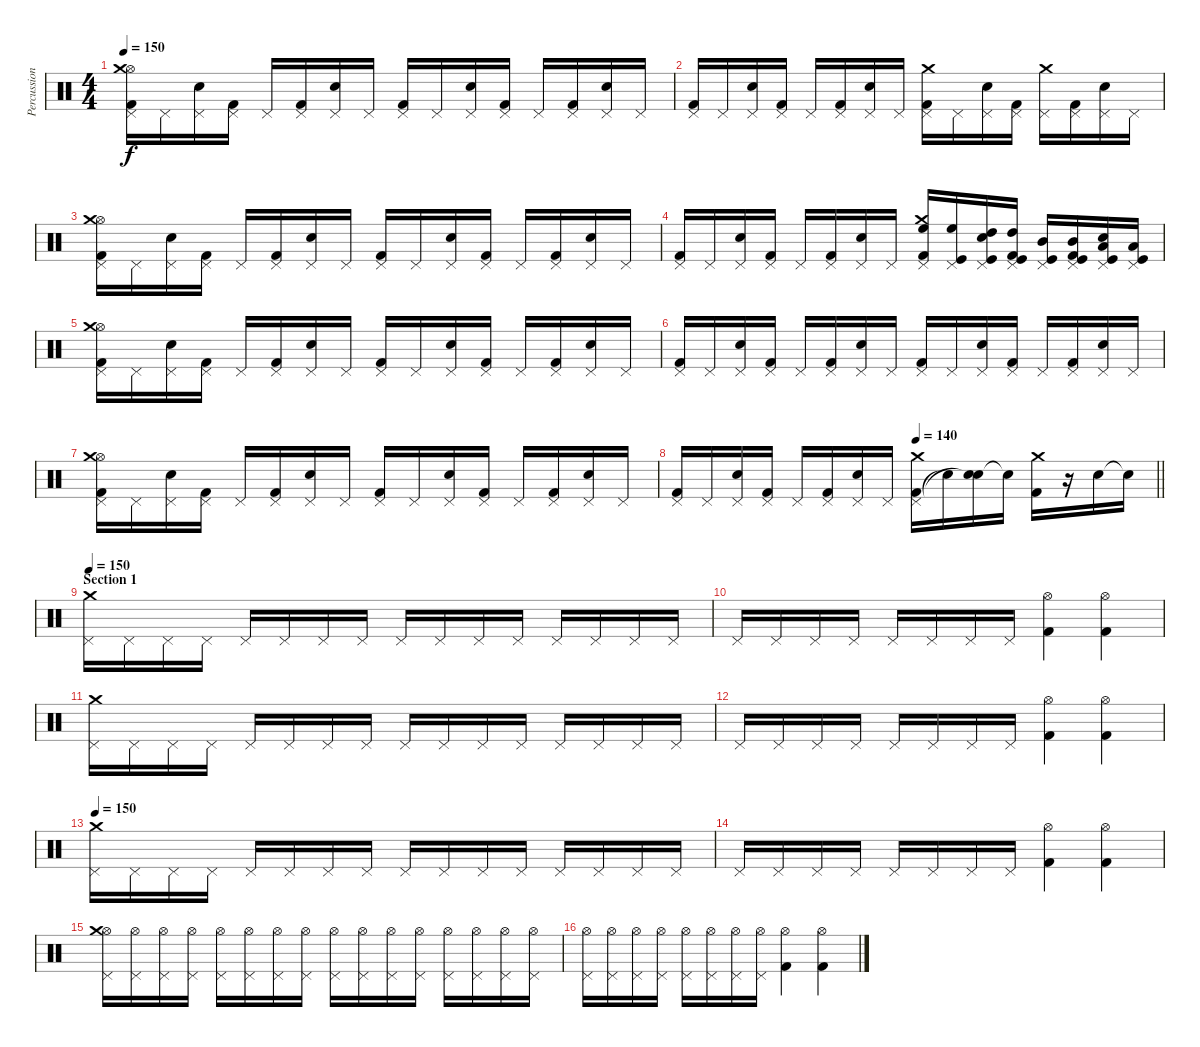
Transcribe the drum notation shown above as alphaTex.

\track ("Percussion" "Percussion") {instrument percussion}
\staff {score}
\articulation defaults
\ts (4 4)
\tempo 150
\clef neutral
\ks c
("Pedal Hi-Hat (hit)" "Kick (hit) 2" "Hi-Hat (open)" "Crash medium (hit)").16{dy f} "Pedal Hi-Hat (hit)".16 ("Pedal Hi-Hat (hit)" "Snare (hit) 2").16 ("Pedal Hi-Hat (hit)" "Kick (hit) 2").16 "Pedal Hi-Hat (hit)".16 ("Pedal Hi-Hat (hit)" "Kick (hit) 2").16 ("Pedal Hi-Hat (hit)" "Snare (hit) 2").16 "Pedal Hi-Hat (hit)".16 ("Pedal Hi-Hat (hit)" "Kick (hit) 2").16 "Pedal Hi-Hat (hit)".16 ("Pedal Hi-Hat (hit)" "Snare (hit) 2").16 ("Pedal Hi-Hat (hit)" "Kick (hit) 2").16 "Pedal Hi-Hat (hit)".16 ("Pedal Hi-Hat (hit)" "Kick (hit) 2").16 ("Pedal Hi-Hat (hit)" "Snare (hit) 2").16 "Pedal Hi-Hat (hit)".16 |
("Pedal Hi-Hat (hit)" "Kick (hit) 2").16 "Pedal Hi-Hat (hit)".16 ("Pedal Hi-Hat (hit)" "Snare (hit) 2").16 ("Pedal Hi-Hat (hit)" "Kick (hit) 2").16 "Pedal Hi-Hat (hit)".16 ("Pedal Hi-Hat (hit)" "Kick (hit) 2").16 ("Pedal Hi-Hat (hit)" "Snare (hit) 2").16 "Pedal Hi-Hat (hit)".16 ("Pedal Hi-Hat (hit)" "Kick (hit) 2" "Crash medium (hit)").16 "Pedal Hi-Hat (hit)".16 ("Pedal Hi-Hat (hit)" "Snare (hit) 2").16 ("Pedal Hi-Hat (hit)" "Kick (hit) 2").16 ("Pedal Hi-Hat (hit)" "Crash medium (hit)").16 ("Pedal Hi-Hat (hit)" "Kick (hit) 2").16 ("Pedal Hi-Hat (hit)" "Snare (hit) 2").16 "Pedal Hi-Hat (hit)".16 |
("Pedal Hi-Hat (hit)" "Kick (hit) 2" "Hi-Hat (open)" "Crash medium (hit)").16 "Pedal Hi-Hat (hit)".16 ("Pedal Hi-Hat (hit)" "Snare (hit) 2").16 ("Pedal Hi-Hat (hit)" "Kick (hit) 2").16 "Pedal Hi-Hat (hit)".16 ("Pedal Hi-Hat (hit)" "Kick (hit) 2").16 ("Pedal Hi-Hat (hit)" "Snare (hit) 2").16 "Pedal Hi-Hat (hit)".16 ("Pedal Hi-Hat (hit)" "Kick (hit) 2").16 "Pedal Hi-Hat (hit)".16 ("Pedal Hi-Hat (hit)" "Snare (hit) 2").16 ("Pedal Hi-Hat (hit)" "Kick (hit) 2").16 "Pedal Hi-Hat (hit)".16 ("Pedal Hi-Hat (hit)" "Kick (hit) 2").16 ("Pedal Hi-Hat (hit)" "Snare (hit) 2").16 "Pedal Hi-Hat (hit)".16 |
("Pedal Hi-Hat (hit)" "Kick (hit) 2").16 "Pedal Hi-Hat (hit)".16 ("Pedal Hi-Hat (hit)" "Snare (hit) 2").16 ("Pedal Hi-Hat (hit)" "Kick (hit) 2").16 "Pedal Hi-Hat (hit)".16 ("Pedal Hi-Hat (hit)" "Kick (hit) 2").16 ("Pedal Hi-Hat (hit)" "Snare (hit) 2").16 "Pedal Hi-Hat (hit)".16 ("Pedal Hi-Hat (hit)" "Kick (hit) 2" "High Floor Tom (hit)" "Crash medium (hit)").16 ("Pedal Hi-Hat (hit)" "Kick (hit)" "High Floor Tom (hit)").16 ("Pedal Hi-Hat (hit)" "Snare (hit) 2" "Kick (hit)" "High Tom (hit)").16 ("Pedal Hi-Hat (hit)" "Kick (hit) 2" "Kick (hit)" "High Tom (hit)").16 ("Pedal Hi-Hat (hit)" "Kick (hit)" "Mid Tom (hit)").16 ("Pedal Hi-Hat (hit)" "Kick (hit) 2" "Kick (hit)" "Mid Tom (hit)").16 ("Pedal Hi-Hat (hit)" "Snare (hit) 2" "Kick (hit)" "Low Tom (hit)").16 ("Pedal Hi-Hat (hit)" "Kick (hit)" "Low Tom (hit)").16 |
("Pedal Hi-Hat (hit)" "Kick (hit) 2" "Hi-Hat (open)" "Crash medium (hit)").16 "Pedal Hi-Hat (hit)".16 ("Pedal Hi-Hat (hit)" "Snare (hit) 2").16 ("Pedal Hi-Hat (hit)" "Kick (hit) 2").16 "Pedal Hi-Hat (hit)".16 ("Pedal Hi-Hat (hit)" "Kick (hit) 2").16 ("Pedal Hi-Hat (hit)" "Snare (hit) 2").16 "Pedal Hi-Hat (hit)".16 ("Pedal Hi-Hat (hit)" "Kick (hit) 2").16 "Pedal Hi-Hat (hit)".16 ("Pedal Hi-Hat (hit)" "Snare (hit) 2").16 ("Pedal Hi-Hat (hit)" "Kick (hit) 2").16 "Pedal Hi-Hat (hit)".16 ("Pedal Hi-Hat (hit)" "Kick (hit) 2").16 ("Pedal Hi-Hat (hit)" "Snare (hit) 2").16 "Pedal Hi-Hat (hit)".16 |
("Pedal Hi-Hat (hit)" "Kick (hit) 2").16 "Pedal Hi-Hat (hit)".16 ("Pedal Hi-Hat (hit)" "Snare (hit) 2").16 ("Pedal Hi-Hat (hit)" "Kick (hit) 2").16 "Pedal Hi-Hat (hit)".16 ("Pedal Hi-Hat (hit)" "Kick (hit) 2").16 ("Pedal Hi-Hat (hit)" "Snare (hit) 2").16 "Pedal Hi-Hat (hit)".16 ("Pedal Hi-Hat (hit)" "Kick (hit) 2").16 "Pedal Hi-Hat (hit)".16 ("Pedal Hi-Hat (hit)" "Snare (hit) 2").16 ("Pedal Hi-Hat (hit)" "Kick (hit) 2").16 "Pedal Hi-Hat (hit)".16 ("Pedal Hi-Hat (hit)" "Kick (hit) 2").16 ("Pedal Hi-Hat (hit)" "Snare (hit) 2").16 "Pedal Hi-Hat (hit)".16 |
("Pedal Hi-Hat (hit)" "Kick (hit) 2" "Hi-Hat (open)" "Crash medium (hit)").16 "Pedal Hi-Hat (hit)".16 ("Pedal Hi-Hat (hit)" "Snare (hit) 2").16 ("Pedal Hi-Hat (hit)" "Kick (hit) 2").16 "Pedal Hi-Hat (hit)".16 ("Pedal Hi-Hat (hit)" "Kick (hit) 2").16 ("Pedal Hi-Hat (hit)" "Snare (hit) 2").16 "Pedal Hi-Hat (hit)".16 ("Pedal Hi-Hat (hit)" "Kick (hit) 2").16 "Pedal Hi-Hat (hit)".16 ("Pedal Hi-Hat (hit)" "Snare (hit) 2").16 ("Pedal Hi-Hat (hit)" "Kick (hit) 2").16 "Pedal Hi-Hat (hit)".16 ("Pedal Hi-Hat (hit)" "Kick (hit) 2").16 ("Pedal Hi-Hat (hit)" "Snare (hit) 2").16 "Pedal Hi-Hat (hit)".16 |
\tempo (140 0.5)
\barLineRight lightlight
("Pedal Hi-Hat (hit)" "Kick (hit) 2").16 "Pedal Hi-Hat (hit)".16 ("Pedal Hi-Hat (hit)" "Snare (hit) 2").16 ("Pedal Hi-Hat (hit)" "Kick (hit) 2").16 "Pedal Hi-Hat (hit)".16 ("Pedal Hi-Hat (hit)" "Kick (hit) 2").16 ("Pedal Hi-Hat (hit)" "Snare (hit) 2").16 "Pedal Hi-Hat (hit)".16 ("Pedal Hi-Hat (hit)" "Kick (hit) 2" "Crash medium (hit)").16 "Snare (hit)"{t}.16 ("Snare (hit) 2" "Snare (hit)"{t}).16 "Snare (hit)"{t}.16 ("Kick (hit) 2" "Crash medium (hit)").16 r.16 "Snare (hit) 2".16 "Snare (hit)"{t}.16 |
\section ("" "Section 1")
\tempo 150
("Pedal Hi-Hat (hit)" "Crash medium (hit)").16 "Pedal Hi-Hat (hit)".16 "Pedal Hi-Hat (hit)".16 "Pedal Hi-Hat (hit)".16 "Pedal Hi-Hat (hit)".16 "Pedal Hi-Hat (hit)".16 "Pedal Hi-Hat (hit)".16 "Pedal Hi-Hat (hit)".16 "Pedal Hi-Hat (hit)".16 "Pedal Hi-Hat (hit)".16 "Pedal Hi-Hat (hit)".16 "Pedal Hi-Hat (hit)".16 "Pedal Hi-Hat (hit)".16 "Pedal Hi-Hat (hit)".16 "Pedal Hi-Hat (hit)".16 "Pedal Hi-Hat (hit)".16 |
"Pedal Hi-Hat (hit)".16 "Pedal Hi-Hat (hit)".16 "Pedal Hi-Hat (hit)".16 "Pedal Hi-Hat (hit)".16 "Pedal Hi-Hat (hit)".16 "Pedal Hi-Hat (hit)".16 "Pedal Hi-Hat (hit)".16 "Pedal Hi-Hat (hit)".16 ("Kick (hit) 2" "Hi-Hat (open)").4 ("Kick (hit) 2" "Hi-Hat (open)").4 |
("Pedal Hi-Hat (hit)" "Crash medium (hit)").16 "Pedal Hi-Hat (hit)".16 "Pedal Hi-Hat (hit)".16 "Pedal Hi-Hat (hit)".16 "Pedal Hi-Hat (hit)".16 "Pedal Hi-Hat (hit)".16 "Pedal Hi-Hat (hit)".16 "Pedal Hi-Hat (hit)".16 "Pedal Hi-Hat (hit)".16 "Pedal Hi-Hat (hit)".16 "Pedal Hi-Hat (hit)".16 "Pedal Hi-Hat (hit)".16 "Pedal Hi-Hat (hit)".16 "Pedal Hi-Hat (hit)".16 "Pedal Hi-Hat (hit)".16 "Pedal Hi-Hat (hit)".16 |
"Pedal Hi-Hat (hit)".16 "Pedal Hi-Hat (hit)".16 "Pedal Hi-Hat (hit)".16 "Pedal Hi-Hat (hit)".16 "Pedal Hi-Hat (hit)".16 "Pedal Hi-Hat (hit)".16 "Pedal Hi-Hat (hit)".16 "Pedal Hi-Hat (hit)".16 ("Kick (hit) 2" "Hi-Hat (open)").4 ("Kick (hit) 2" "Hi-Hat (open)").4 |
\tempo 150
("Pedal Hi-Hat (hit)" "Crash medium (hit)").16 "Pedal Hi-Hat (hit)".16 "Pedal Hi-Hat (hit)".16 "Pedal Hi-Hat (hit)".16 "Pedal Hi-Hat (hit)".16 "Pedal Hi-Hat (hit)".16 "Pedal Hi-Hat (hit)".16 "Pedal Hi-Hat (hit)".16 "Pedal Hi-Hat (hit)".16 "Pedal Hi-Hat (hit)".16 "Pedal Hi-Hat (hit)".16 "Pedal Hi-Hat (hit)".16 "Pedal Hi-Hat (hit)".16 "Pedal Hi-Hat (hit)".16 "Pedal Hi-Hat (hit)".16 "Pedal Hi-Hat (hit)".16 |
"Pedal Hi-Hat (hit)".16 "Pedal Hi-Hat (hit)".16 "Pedal Hi-Hat (hit)".16 "Pedal Hi-Hat (hit)".16 "Pedal Hi-Hat (hit)".16 "Pedal Hi-Hat (hit)".16 "Pedal Hi-Hat (hit)".16 "Pedal Hi-Hat (hit)".16 ("Kick (hit) 2" "Hi-Hat (open)").4 ("Kick (hit) 2" "Hi-Hat (open)").4 |
("Pedal Hi-Hat (hit)" "Hi-Hat (open)" "Crash medium (hit)").16 ("Pedal Hi-Hat (hit)" "Hi-Hat (open)").16 ("Pedal Hi-Hat (hit)" "Hi-Hat (open)").16 ("Pedal Hi-Hat (hit)" "Hi-Hat (open)").16 ("Pedal Hi-Hat (hit)" "Hi-Hat (open)").16 ("Pedal Hi-Hat (hit)" "Hi-Hat (open)").16 ("Pedal Hi-Hat (hit)" "Hi-Hat (open)").16 ("Pedal Hi-Hat (hit)" "Hi-Hat (open)").16 ("Pedal Hi-Hat (hit)" "Hi-Hat (open)").16 ("Pedal Hi-Hat (hit)" "Hi-Hat (open)").16 ("Pedal Hi-Hat (hit)" "Hi-Hat (open)").16 ("Pedal Hi-Hat (hit)" "Hi-Hat (open)").16 ("Pedal Hi-Hat (hit)" "Hi-Hat (open)").16 ("Pedal Hi-Hat (hit)" "Hi-Hat (open)").16 ("Pedal Hi-Hat (hit)" "Hi-Hat (open)").16 ("Pedal Hi-Hat (hit)" "Hi-Hat (open)").16 |
("Pedal Hi-Hat (hit)" "Hi-Hat (open)").16 ("Pedal Hi-Hat (hit)" "Hi-Hat (open)").16 ("Pedal Hi-Hat (hit)" "Hi-Hat (open)").16 ("Pedal Hi-Hat (hit)" "Hi-Hat (open)").16 ("Pedal Hi-Hat (hit)" "Hi-Hat (open)").16 ("Pedal Hi-Hat (hit)" "Hi-Hat (open)").16 ("Pedal Hi-Hat (hit)" "Hi-Hat (open)").16 ("Pedal Hi-Hat (hit)" "Hi-Hat (open)").16 ("Kick (hit) 2" "Hi-Hat (open)").4 ("Kick (hit) 2" "Hi-Hat (open)").4
